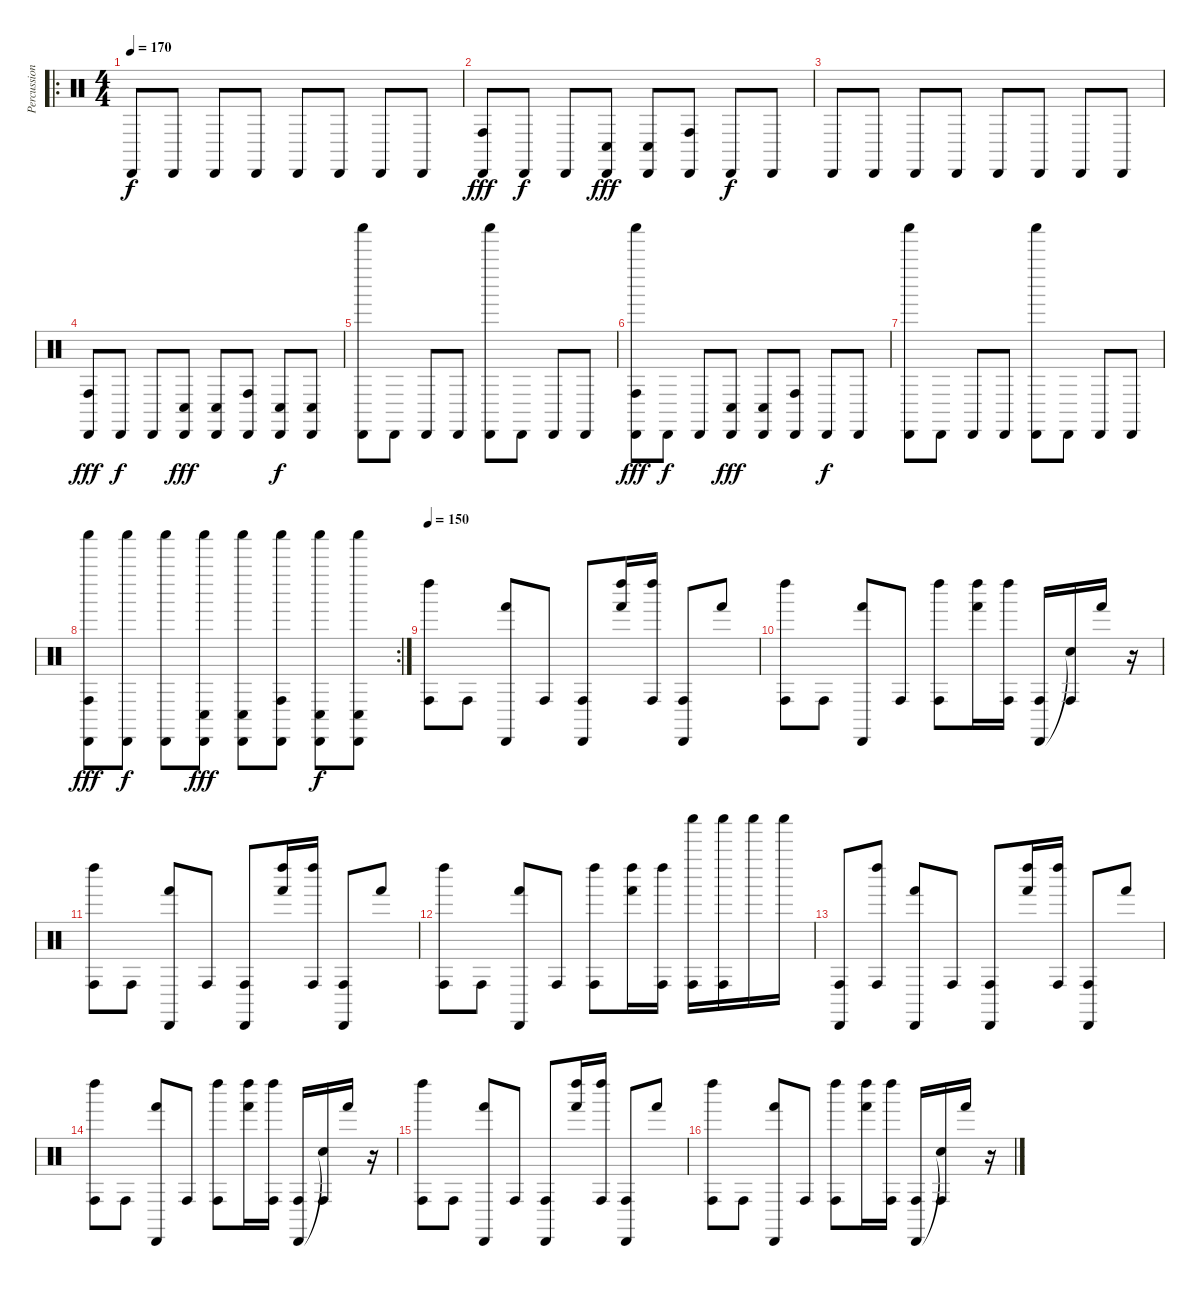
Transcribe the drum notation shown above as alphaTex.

\track ("Percussions" "Percussion") {instrument percussion}
\staff {score}
\articulation defaults
\ro
\ts (4 4)
\tempo 170
\clef neutral
\ks c "Cabasa (hit)".8{dy f} "Cabasa (hit)".8 "Cabasa (hit)".8 "Cabasa (hit)".8 "Cabasa (hit)".8 "Cabasa (hit)".8 "Cabasa (hit)".8 "Cabasa (hit)".8
|
("Cabasa (hit)" "Conga high (hit)").8{dy fff} "Cabasa (hit)".8{dy f} "Cabasa (hit)".8 ("Cabasa (hit)" "Conga low (hit)").8{dy fff} ("Cabasa (hit)" "Conga low (hit)").8 ("Cabasa (hit)" "Conga high (hit)").8 "Cabasa (hit)".8{dy f} "Cabasa (hit)".8 |
"Cabasa (hit)".8 "Cabasa (hit)".8 "Cabasa (hit)".8 "Cabasa (hit)".8 "Cabasa (hit)".8 "Cabasa (hit)".8 "Cabasa (hit)".8 "Cabasa (hit)".8 |
("Cabasa (hit)" "Conga high (hit)").8{dy fff} "Cabasa (hit)".8{dy f} "Cabasa (hit)".8 ("Cabasa (hit)" "Conga low (hit)").8{dy fff} ("Cabasa (hit)" "Conga low (hit)").8 ("Cabasa (hit)" "Conga high (hit)").8 ("Cabasa (hit)" "Conga low (hit)").8{dy f} ("Cabasa (hit)" "Conga low (hit)").8 |
("Cabasa (hit)" "Shaker (hit)").8 "Cabasa (hit)".8 "Cabasa (hit)".8 "Cabasa (hit)".8 ("Cabasa (hit)" "Shaker (hit)").8 "Cabasa (hit)".8 "Cabasa (hit)".8 "Cabasa (hit)".8 |
("Cabasa (hit)" "Shaker (hit)" "Conga high (hit)").8{dy fff} "Cabasa (hit)".8{dy f} "Cabasa (hit)".8 ("Cabasa (hit)" "Conga low (hit)").8{dy fff} ("Cabasa (hit)" "Conga low (hit)").8 ("Cabasa (hit)" "Conga high (hit)").8 "Cabasa (hit)".8{dy f} "Cabasa (hit)".8 |
("Cabasa (hit)" "Shaker (hit)").8 "Cabasa (hit)".8 "Cabasa (hit)".8 "Cabasa (hit)".8 ("Cabasa (hit)" "Shaker (hit)").8 "Cabasa (hit)".8 "Cabasa (hit)".8 "Cabasa (hit)".8 |
\rc 2
("Cabasa (hit)" "Shaker (hit)" "Conga high (hit)").8{dy fff} ("Cabasa (hit)" "Shaker (hit)").8{dy f} ("Cabasa (hit)" "Shaker (hit)").8 ("Cabasa (hit)" "Shaker (hit)" "Conga low (hit)").8{dy fff} ("Cabasa (hit)" "Shaker (hit)" "Conga low (hit)").8 ("Cabasa (hit)" "Shaker (hit)" "Conga high (hit)").8 ("Cabasa (hit)" "Shaker (hit)" "Conga low (hit)").8{dy f} ("Cabasa (hit)" "Shaker (hit)" "Conga low (hit)").8 |
\tempo 150
("Left Maraca (hit)" "Conga high (hit)").8 "Conga high (hit)".8 ("Cabasa (hit)" "Hand (hit)").8 "Conga high (hit)".8 ("Cabasa (hit)" "Conga high (hit)").8 ("Left Maraca (hit)" "Hand (hit)").16 ("Left Maraca (hit)" "Conga high (hit)").16 ("Cabasa (hit)" "Conga high (hit)").8 "Hand (hit)".8 |
("Left Maraca (hit)" "Conga high (hit)").8 "Conga high (hit)".8 ("Cabasa (hit)" "Hand (hit)").8 "Conga high (hit)".8 ("Left Maraca (hit)" "Conga high (hit)").8 ("Left Maraca (hit)" "Hand (hit)").16 ("Left Maraca (hit)" "Conga high (hit)").16 ("Cabasa (hit)" "Conga high (hit)").16 ("Snare (hit)"{t} "Conga high (hit)").16 "Hand (hit)".16 r.16 |
("Left Maraca (hit)" "Conga high (hit)").8 "Conga high (hit)".8 ("Cabasa (hit)" "Hand (hit)").8 "Conga high (hit)".8 ("Cabasa (hit)" "Conga high (hit)").8 ("Left Maraca (hit)" "Hand (hit)").16 ("Left Maraca (hit)" "Conga high (hit)").16 ("Cabasa (hit)" "Conga high (hit)").8 "Hand (hit)".8 |
("Left Maraca (hit)" "Conga high (hit)").8 "Conga high (hit)".8 ("Cabasa (hit)" "Hand (hit)").8 "Conga high (hit)".8 ("Left Maraca (hit)" "Conga high (hit)").8 ("Left Maraca (hit)" "Hand (hit)").16 ("Left Maraca (hit)" "Conga high (hit)").16 ("Shaker (hit)" "Conga high (hit)").16 ("Shaker (hit)" "Conga high (hit)").16 "Shaker (hit)".16 "Shaker (hit)".16 |
("Cabasa (hit)" "Conga high (hit)").8 ("Left Maraca (hit)" "Conga high (hit)").8 ("Cabasa (hit)" "Hand (hit)").8 "Conga high (hit)".8 ("Cabasa (hit)" "Conga high (hit)").8 ("Left Maraca (hit)" "Hand (hit)").16 ("Left Maraca (hit)" "Conga high (hit)").16 ("Cabasa (hit)" "Conga high (hit)").8 "Hand (hit)".8 |
("Left Maraca (hit)" "Conga high (hit)").8 "Conga high (hit)".8 ("Cabasa (hit)" "Hand (hit)").8 "Conga high (hit)".8 ("Left Maraca (hit)" "Conga high (hit)").8 ("Left Maraca (hit)" "Hand (hit)").16 ("Left Maraca (hit)" "Conga high (hit)").16 ("Cabasa (hit)" "Conga high (hit)").16 ("Snare (hit)"{t} "Conga high (hit)").16 "Hand (hit)".16 r.16 |
("Left Maraca (hit)" "Conga high (hit)").8 "Conga high (hit)".8 ("Cabasa (hit)" "Hand (hit)").8 "Conga high (hit)".8 ("Cabasa (hit)" "Conga high (hit)").8 ("Left Maraca (hit)" "Hand (hit)").16 ("Left Maraca (hit)" "Conga high (hit)").16 ("Cabasa (hit)" "Conga high (hit)").8 "Hand (hit)".8 |
("Left Maraca (hit)" "Conga high (hit)").8 "Conga high (hit)".8 ("Cabasa (hit)" "Hand (hit)").8 "Conga high (hit)".8 ("Left Maraca (hit)" "Conga high (hit)").8 ("Left Maraca (hit)" "Hand (hit)").16 ("Left Maraca (hit)" "Conga high (hit)").16 ("Cabasa (hit)" "Conga high (hit)").16 ("Snare (hit)"{t} "Conga high (hit)").16 "Hand (hit)".16 r.16
